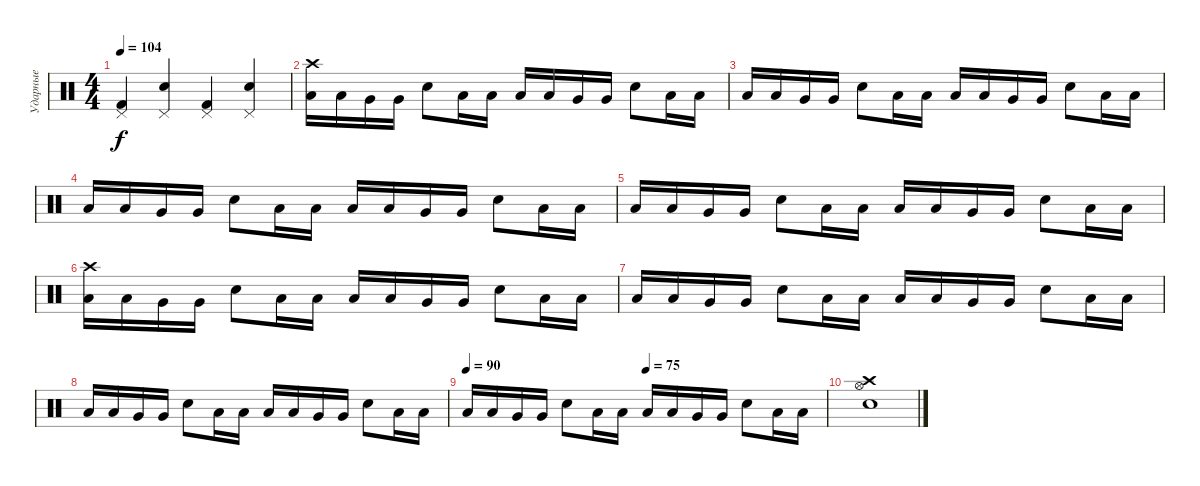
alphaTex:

\track ("Ударные" "Ударные") {instrument percussion}
\staff {score}
\articulation defaults
\ts (4 4)
\tempo 104
\clef neutral
\ks c
("Pedal Hi-Hat (hit)" "Kick (hit) 2").4{dy f} ("Pedal Hi-Hat (hit)" "Electric Snare (hit)").4 ("Pedal Hi-Hat (hit)" "Kick (hit) 2").4 ("Pedal Hi-Hat (hit)" "Electric Snare (hit)").4 |
("Crash high (hit)" "Low Tom (hit)").16 "Low Tom (hit)".16 "Very Low Tom (hit)".16 "Very Low Tom (hit)".16 "Electric Snare (hit)".8 "Low Floor Tom (hit)".16 "Low Floor Tom (hit)".16 "Low Tom (hit)".16 "Low Tom (hit)".16 "Very Low Tom (hit)".16 "Very Low Tom (hit)".16 "Electric Snare (hit)".8 "Low Floor Tom (hit)".16 "Low Floor Tom (hit)".16 |
"Low Tom (hit)".16 "Low Tom (hit)".16 "Very Low Tom (hit)".16 "Very Low Tom (hit)".16 "Electric Snare (hit)".8 "Low Floor Tom (hit)".16 "Low Floor Tom (hit)".16 "Low Tom (hit)".16 "Low Tom (hit)".16 "Very Low Tom (hit)".16 "Very Low Tom (hit)".16 "Electric Snare (hit)".8 "Low Floor Tom (hit)".16 "Low Floor Tom (hit)".16 |
"Low Tom (hit)".16 "Low Tom (hit)".16 "Very Low Tom (hit)".16 "Very Low Tom (hit)".16 "Electric Snare (hit)".8 "Low Floor Tom (hit)".16 "Low Floor Tom (hit)".16 "Low Tom (hit)".16 "Low Tom (hit)".16 "Very Low Tom (hit)".16 "Very Low Tom (hit)".16 "Electric Snare (hit)".8 "Low Floor Tom (hit)".16 "Low Floor Tom (hit)".16 |
"Low Tom (hit)".16 "Low Tom (hit)".16 "Very Low Tom (hit)".16 "Very Low Tom (hit)".16 "Electric Snare (hit)".8 "Low Floor Tom (hit)".16 "Low Floor Tom (hit)".16 "Low Tom (hit)".16 "Low Tom (hit)".16 "Very Low Tom (hit)".16 "Very Low Tom (hit)".16 "Electric Snare (hit)".8 "Low Floor Tom (hit)".16 "Low Floor Tom (hit)".16 |
("Crash high (hit)" "Low Tom (hit)").16 "Low Tom (hit)".16 "Very Low Tom (hit)".16 "Very Low Tom (hit)".16 "Electric Snare (hit)".8 "Low Floor Tom (hit)".16 "Low Floor Tom (hit)".16 "Low Tom (hit)".16 "Low Tom (hit)".16 "Very Low Tom (hit)".16 "Very Low Tom (hit)".16 "Electric Snare (hit)".8 "Low Floor Tom (hit)".16 "Low Floor Tom (hit)".16 |
"Low Tom (hit)".16 "Low Tom (hit)".16 "Very Low Tom (hit)".16 "Very Low Tom (hit)".16 "Electric Snare (hit)".8 "Low Floor Tom (hit)".16 "Low Floor Tom (hit)".16 "Low Tom (hit)".16 "Low Tom (hit)".16 "Very Low Tom (hit)".16 "Very Low Tom (hit)".16 "Electric Snare (hit)".8 "Low Floor Tom (hit)".16 "Low Floor Tom (hit)".16 |
"Low Tom (hit)".16 "Low Tom (hit)".16 "Very Low Tom (hit)".16 "Very Low Tom (hit)".16 "Electric Snare (hit)".8 "Low Floor Tom (hit)".16 "Low Floor Tom (hit)".16 "Low Tom (hit)".16 "Low Tom (hit)".16 "Very Low Tom (hit)".16 "Very Low Tom (hit)".16 "Electric Snare (hit)".8 "Low Floor Tom (hit)".16 "Low Floor Tom (hit)".16 |
\tempo 90
\tempo (75 0.5)
"Low Tom (hit)".16 "Low Tom (hit)".16 "Very Low Tom (hit)".16 "Very Low Tom (hit)".16 "Electric Snare (hit)".8 "Low Floor Tom (hit)".16 "Low Floor Tom (hit)".16 "Low Tom (hit)".16 "Low Tom (hit)".16 "Very Low Tom (hit)".16 "Very Low Tom (hit)".16 "Electric Snare (hit)".8 "Low Floor Tom (hit)".16 "Low Floor Tom (hit)".16 |
("Electric Snare (hit)" "Crash high (hit)" "Hi-Hat (open)").1
